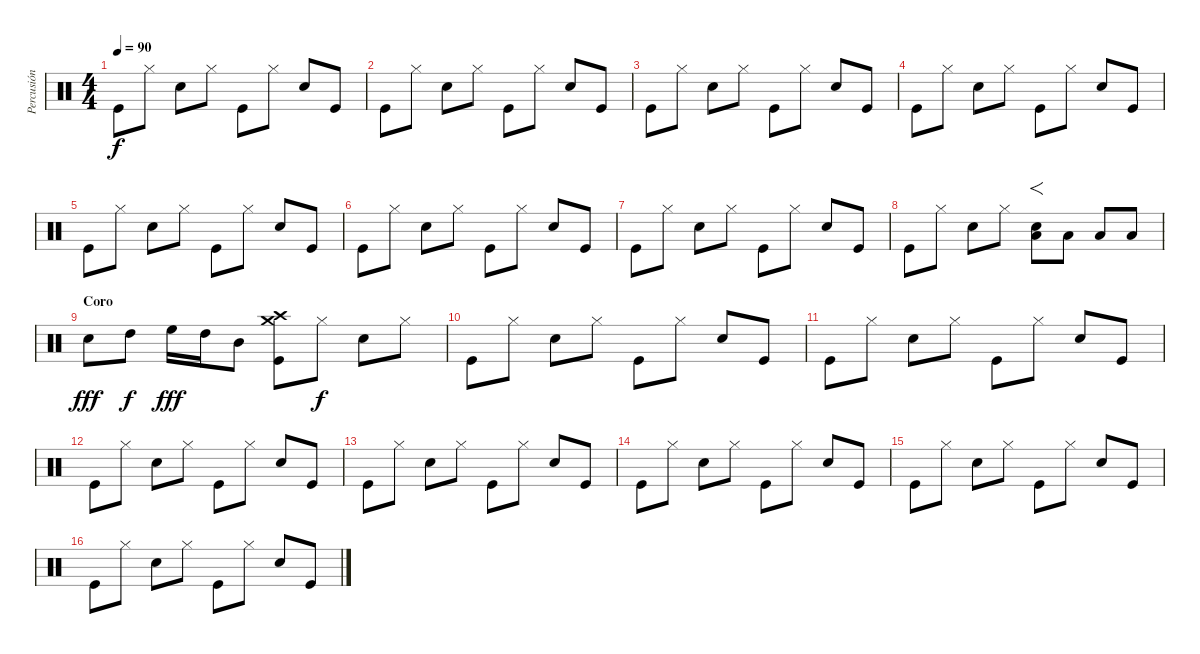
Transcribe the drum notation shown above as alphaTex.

\track ("Percusión" "Percusión") {instrument percussion}
\staff {score}
\articulation defaults
\ts (4 4)
\tempo 90
\clef neutral
\ks c "Kick (hit)".8{dy f} "Hi-Hat (closed)".8 "Snare (hit) 2".8 "Hi-Hat (closed)".8 "Kick (hit)".8 "Hi-Hat (closed)".8 "Snare (hit) 2".8 "Kick (hit)".8
|
"Kick (hit)".8 "Hi-Hat (closed)".8 "Snare (hit) 2".8 "Hi-Hat (closed)".8 "Kick (hit)".8 "Hi-Hat (closed)".8 "Snare (hit) 2".8 "Kick (hit)".8 |
"Kick (hit)".8 "Hi-Hat (closed)".8 "Snare (hit) 2".8 "Hi-Hat (closed)".8 "Kick (hit)".8 "Hi-Hat (closed)".8 "Snare (hit) 2".8 "Kick (hit)".8 |
"Kick (hit)".8 "Hi-Hat (closed)".8 "Snare (hit) 2".8 "Hi-Hat (closed)".8 "Kick (hit)".8 "Hi-Hat (closed)".8 "Snare (hit) 2".8 "Kick (hit)".8 |
"Kick (hit)".8 "Hi-Hat (closed)".8 "Snare (hit) 2".8 "Hi-Hat (closed)".8 "Kick (hit)".8 "Hi-Hat (closed)".8 "Snare (hit) 2".8 "Kick (hit)".8 |
"Kick (hit)".8 "Hi-Hat (closed)".8 "Snare (hit) 2".8 "Hi-Hat (closed)".8 "Kick (hit)".8 "Hi-Hat (closed)".8 "Snare (hit) 2".8 "Kick (hit)".8 |
"Kick (hit)".8 "Hi-Hat (closed)".8 "Snare (hit) 2".8 "Hi-Hat (closed)".8 "Kick (hit)".8 "Hi-Hat (closed)".8 "Snare (hit) 2".8 "Kick (hit)".8 |
"Kick (hit)".8 "Hi-Hat (closed)".8 "Snare (hit) 2".8 "Hi-Hat (closed)".8 ("Low Tom (hit)" "Snare (hit) 2").8{f} "Low Tom (hit)".8 "Low Tom (hit)".8 "Low Tom (hit)".8 |
\section ("" "Coro")
"Snare (hit) 2".8{dy fff} "High Tom (hit)".8{dy f} "High Floor Tom (hit)".16{dy fff} "High Tom (hit)".16 "Mid Tom (hit)".8 ("Crash medium (hit)" "Crash high (hit)" "Kick (hit)").8 "Hi-Hat (closed)".8{dy f} "Snare (hit) 2".8 "Hi-Hat (closed)".8 |
"Kick (hit)".8 "Hi-Hat (closed)".8 "Snare (hit) 2".8 "Hi-Hat (closed)".8 "Kick (hit)".8 "Hi-Hat (closed)".8 "Snare (hit) 2".8 "Kick (hit)".8 |
"Kick (hit)".8 "Hi-Hat (closed)".8 "Snare (hit) 2".8 "Hi-Hat (closed)".8 "Kick (hit)".8 "Hi-Hat (closed)".8 "Snare (hit) 2".8 "Kick (hit)".8 |
"Kick (hit)".8 "Hi-Hat (closed)".8 "Snare (hit) 2".8 "Hi-Hat (closed)".8 "Kick (hit)".8 "Hi-Hat (closed)".8 "Snare (hit) 2".8 "Kick (hit)".8 |
"Kick (hit)".8 "Hi-Hat (closed)".8 "Snare (hit) 2".8 "Hi-Hat (closed)".8 "Kick (hit)".8 "Hi-Hat (closed)".8 "Snare (hit) 2".8 "Kick (hit)".8 |
"Kick (hit)".8 "Hi-Hat (closed)".8 "Snare (hit) 2".8 "Hi-Hat (closed)".8 "Kick (hit)".8 "Hi-Hat (closed)".8 "Snare (hit) 2".8 "Kick (hit)".8 |
"Kick (hit)".8 "Hi-Hat (closed)".8 "Snare (hit) 2".8 "Hi-Hat (closed)".8 "Kick (hit)".8 "Hi-Hat (closed)".8 "Snare (hit) 2".8 "Kick (hit)".8 |
"Kick (hit)".8 "Hi-Hat (closed)".8 "Snare (hit) 2".8 "Hi-Hat (closed)".8 "Kick (hit)".8 "Hi-Hat (closed)".8 "Snare (hit) 2".8 "Kick (hit)".8
